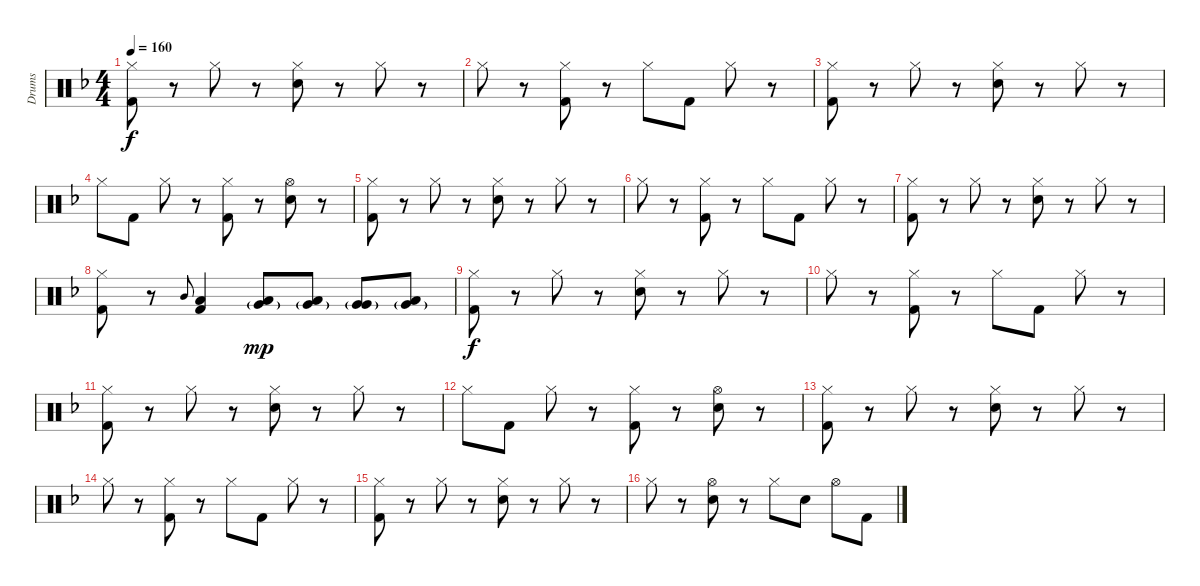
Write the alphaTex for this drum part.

\track ("Drums" "Drums") {instrument percussion}
\staff {score}
\articulation defaults
\ts (4 4)
\tempo 160
\clef neutral
\ks dminor
("Hi-Hat (closed)" "Kick (hit) 2").8{dy f} r.8 "Hi-Hat (closed)".8 r.8 ("Hi-Hat (closed)" "Electric Snare (hit)").8 r.8 "Hi-Hat (closed)".8 r.8 |
"Hi-Hat (closed)".8 r.8 ("Hi-Hat (closed)" "Kick (hit) 2").8 r.8 "Hi-Hat (closed)".8 "Kick (hit) 2".8 "Hi-Hat (closed)".8 r.8 |
("Hi-Hat (closed)" "Kick (hit) 2").8 r.8 "Hi-Hat (closed)".8 r.8 ("Hi-Hat (closed)" "Electric Snare (hit)").8 r.8 "Hi-Hat (closed)".8 r.8 |
"Hi-Hat (closed)".8 "Kick (hit) 2".8 "Hi-Hat (closed)".8 r.8 ("Hi-Hat (closed)" "Kick (hit) 2").8 r.8 ("Hi-Hat (open)" "Electric Snare (hit)").8 r.8 |
("Hi-Hat (closed)" "Kick (hit) 2").8 r.8 "Hi-Hat (closed)".8 r.8 ("Hi-Hat (closed)" "Electric Snare (hit)").8 r.8 "Hi-Hat (closed)".8 r.8 |
"Hi-Hat (closed)".8 r.8 ("Hi-Hat (closed)" "Kick (hit) 2").8 r.8 "Hi-Hat (closed)".8 "Kick (hit) 2".8 "Hi-Hat (closed)".8 r.8 |
("Hi-Hat (closed)" "Kick (hit) 2").8 r.8 "Hi-Hat (closed)".8 r.8 ("Hi-Hat (closed)" "Electric Snare (hit)").8 r.8 "Hi-Hat (closed)".8 r.8 |
("Hi-Hat (closed)" "Kick (hit) 2").8 r.8 "Mid Tom (hit)".8{gr onbeat} ("Low Tom (hit)" "Kick (hit) 2").4 ("Low Tom (hit)" "Very Low Tom (hit)"{g}).8{dy mp} ("Low Tom (hit)" "Very Low Tom (hit)"{g}).8 ("Very Low Tom (hit)" "Very Low Tom (hit)"{g}).8 ("Low Floor Tom (hit)" "Very Low Tom (hit)"{g}).8 |
("Hi-Hat (closed)" "Kick (hit) 2").8{dy f} r.8 "Hi-Hat (closed)".8 r.8 ("Hi-Hat (closed)" "Electric Snare (hit)").8 r.8 "Hi-Hat (closed)".8 r.8 |
"Hi-Hat (closed)".8 r.8 ("Hi-Hat (closed)" "Kick (hit) 2").8 r.8 "Hi-Hat (closed)".8 "Kick (hit) 2".8 "Hi-Hat (closed)".8 r.8 |
("Hi-Hat (closed)" "Kick (hit) 2").8 r.8 "Hi-Hat (closed)".8 r.8 ("Hi-Hat (closed)" "Electric Snare (hit)").8 r.8 "Hi-Hat (closed)".8 r.8 |
"Hi-Hat (closed)".8 "Kick (hit) 2".8 "Hi-Hat (closed)".8 r.8 ("Hi-Hat (closed)" "Kick (hit) 2").8 r.8 ("Hi-Hat (open)" "Electric Snare (hit)").8 r.8 |
("Hi-Hat (closed)" "Kick (hit) 2").8 r.8 "Hi-Hat (closed)".8 r.8 ("Hi-Hat (closed)" "Electric Snare (hit)").8 r.8 "Hi-Hat (closed)".8 r.8 |
"Hi-Hat (closed)".8 r.8 ("Hi-Hat (closed)" "Kick (hit) 2").8 r.8 "Hi-Hat (closed)".8 "Kick (hit) 2".8 "Hi-Hat (closed)".8 r.8 |
("Hi-Hat (closed)" "Kick (hit) 2").8 r.8 "Hi-Hat (closed)".8 r.8 ("Hi-Hat (closed)" "Electric Snare (hit)").8 r.8 "Hi-Hat (closed)".8 r.8 |
"Hi-Hat (closed)".8 r.8 ("Hi-Hat (open)" "Electric Snare (hit)").8 r.8 "Hi-Hat (closed)".8 "Electric Snare (hit)".8 "Hi-Hat (open)".8 "Kick (hit) 2".8
